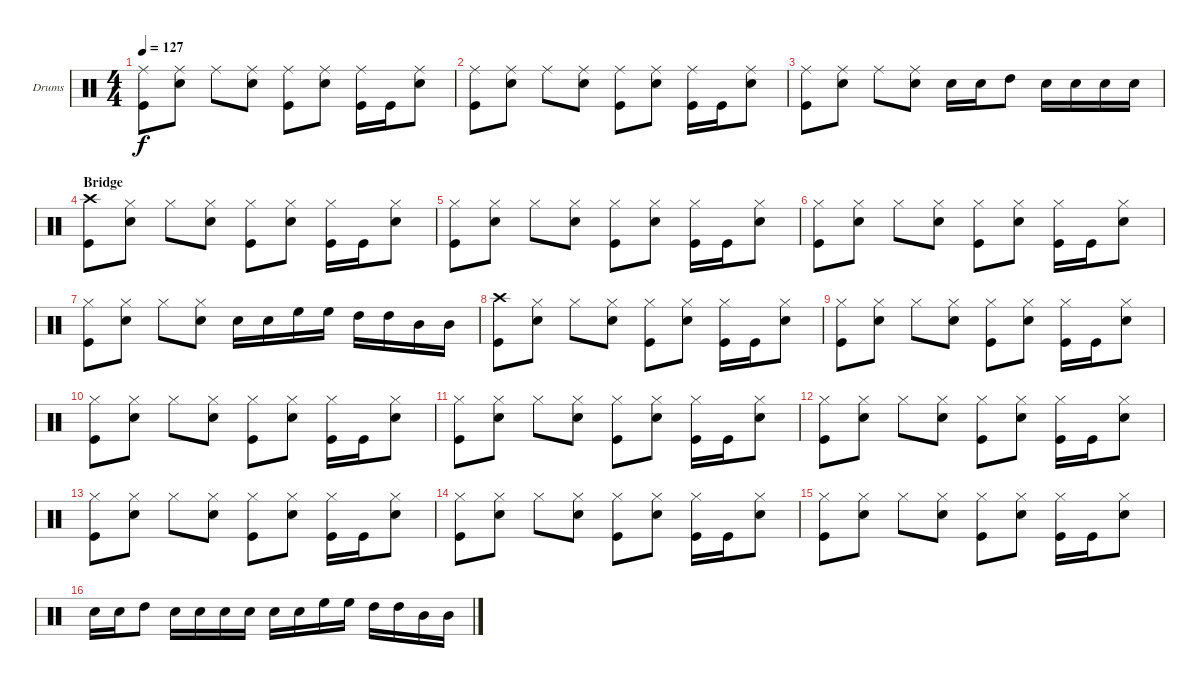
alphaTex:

\bracketExtendMode nobrackets
\firstSystemTrackNameOrientation horizontal
\otherSystemsTrackNameOrientation horizontal
\track ("Matt Cameron" "Drums") {instrument percussion}
\staff {score}
\articulation defaults
\ts (4 4)
\tempo 127
\clef neutral
\scale
0.333333
\ks c
("Kick (hit)" "Ride (middle)").8{dy f} ("Snare (hit) 2" "Ride (middle)").8 "Ride (middle)".8 ("Snare (hit) 2" "Ride (middle)").8 ("Kick (hit)" "Ride (middle)").8 ("Snare (hit) 2" "Ride (middle)").8 ("Kick (hit)" "Ride (middle)").16 "Kick (hit)".16 ("Snare (hit) 2" "Ride (middle)").8 |
\scale
0.333333 ("Kick (hit)" "Ride (middle)").8 ("Snare (hit) 2" "Ride (middle)").8 "Ride (middle)".8 ("Snare (hit) 2" "Ride (middle)").8 ("Kick (hit)" "Ride (middle)").8 ("Snare (hit) 2" "Ride (middle)").8 ("Kick (hit)" "Ride (middle)").16 "Kick (hit)".16 ("Snare (hit) 2" "Ride (middle)").8 |
\scale
0.333333 ("Kick (hit)" "Ride (middle)").8 ("Snare (hit) 2" "Ride (middle)").8 "Ride (middle)".8 ("Snare (hit) 2" "Ride (middle)").8 "Snare (hit) 2".16 "Snare (hit) 2".16 "High Tom (hit)".8 "Snare (hit) 2".16 "Snare (hit) 2".16 "Snare (hit) 2".16 "Snare (hit) 2".16 |
\section ("" "Bridge")
\scale
0.333333 ("Kick (hit)" "Crash high (hit)").8 ("Snare (hit) 2" "Hi-Hat (closed)").8 "Hi-Hat (closed)".8 ("Snare (hit) 2" "Hi-Hat (closed)").8 ("Kick (hit)" "Hi-Hat (closed)").8 ("Snare (hit) 2" "Hi-Hat (closed)").8 ("Kick (hit)" "Hi-Hat (closed)").16 "Kick (hit)".16 ("Snare (hit) 2" "Hi-Hat (closed)").8 |
\scale
0.333333 ("Kick (hit)" "Hi-Hat (closed)").8 ("Snare (hit) 2" "Hi-Hat (closed)").8 "Hi-Hat (closed)".8 ("Snare (hit) 2" "Hi-Hat (closed)").8 ("Kick (hit)" "Hi-Hat (closed)").8 ("Snare (hit) 2" "Hi-Hat (closed)").8 ("Kick (hit)" "Hi-Hat (closed)").16 "Kick (hit)".16 ("Snare (hit) 2" "Hi-Hat (closed)").8 |
\scale
0.333333 ("Kick (hit)" "Hi-Hat (closed)").8 ("Snare (hit) 2" "Hi-Hat (closed)").8 "Hi-Hat (closed)".8 ("Snare (hit) 2" "Hi-Hat (closed)").8 ("Kick (hit)" "Hi-Hat (closed)").8 ("Snare (hit) 2" "Hi-Hat (closed)").8 ("Kick (hit)" "Hi-Hat (closed)").16 "Kick (hit)".16 ("Snare (hit) 2" "Hi-Hat (closed)").8 |
\scale
0.333333 ("Kick (hit)" "Hi-Hat (closed)").8 ("Snare (hit) 2" "Hi-Hat (closed)").8 "Hi-Hat (closed)".8 ("Snare (hit) 2" "Hi-Hat (closed)").8 "Snare (hit) 2".16 "Snare (hit) 2".16 "High Floor Tom (hit)".16 "High Floor Tom (hit)".16 "High Tom (hit)".16 "High Tom (hit)".16 "Mid Tom (hit)".16 "Mid Tom (hit)".16 |
\scale
0.333333 ("Kick (hit)" "Crash high (hit)").8 ("Snare (hit) 2" "Hi-Hat (closed)").8 "Hi-Hat (closed)".8 ("Snare (hit) 2" "Hi-Hat (closed)").8 ("Kick (hit)" "Hi-Hat (closed)").8 ("Snare (hit) 2" "Hi-Hat (closed)").8 ("Kick (hit)" "Hi-Hat (closed)").16 "Kick (hit)".16 ("Snare (hit) 2" "Hi-Hat (closed)").8 |
\scale
0.333333 ("Kick (hit)" "Hi-Hat (closed)").8 ("Snare (hit) 2" "Hi-Hat (closed)").8 "Hi-Hat (closed)".8 ("Snare (hit) 2" "Hi-Hat (closed)").8 ("Kick (hit)" "Hi-Hat (closed)").8 ("Snare (hit) 2" "Hi-Hat (closed)").8 ("Kick (hit)" "Hi-Hat (closed)").16 "Kick (hit)".16 ("Snare (hit) 2" "Hi-Hat (closed)").8 |
\scale
0.333333 ("Kick (hit)" "Hi-Hat (closed)").8 ("Snare (hit) 2" "Hi-Hat (closed)").8 "Hi-Hat (closed)".8 ("Snare (hit) 2" "Hi-Hat (closed)").8 ("Kick (hit)" "Hi-Hat (closed)").8 ("Snare (hit) 2" "Hi-Hat (closed)").8 ("Kick (hit)" "Hi-Hat (closed)").16 "Kick (hit)".16 ("Snare (hit) 2" "Hi-Hat (closed)").8 |
\scale
0.333333 ("Kick (hit)" "Hi-Hat (closed)").8 ("Snare (hit) 2" "Hi-Hat (closed)").8 "Hi-Hat (closed)".8 ("Snare (hit) 2" "Hi-Hat (closed)").8 ("Kick (hit)" "Hi-Hat (closed)").8 ("Snare (hit) 2" "Hi-Hat (closed)").8 ("Kick (hit)" "Hi-Hat (closed)").16 "Kick (hit)".16 ("Snare (hit) 2" "Hi-Hat (closed)").8 |
\scale
0.333333 ("Kick (hit)" "Hi-Hat (closed)").8 ("Snare (hit) 2" "Hi-Hat (closed)").8 "Hi-Hat (closed)".8 ("Snare (hit) 2" "Hi-Hat (closed)").8 ("Kick (hit)" "Hi-Hat (closed)").8 ("Snare (hit) 2" "Hi-Hat (closed)").8 ("Kick (hit)" "Hi-Hat (closed)").16 "Kick (hit)".16 ("Snare (hit) 2" "Hi-Hat (closed)").8 |
\scale
0.333333 ("Kick (hit)" "Hi-Hat (closed)").8 ("Snare (hit) 2" "Hi-Hat (closed)").8 "Hi-Hat (closed)".8 ("Snare (hit) 2" "Hi-Hat (closed)").8 ("Kick (hit)" "Hi-Hat (closed)").8 ("Snare (hit) 2" "Hi-Hat (closed)").8 ("Kick (hit)" "Hi-Hat (closed)").16 "Kick (hit)".16 ("Snare (hit) 2" "Hi-Hat (closed)").8 |
\scale
0.333333 ("Kick (hit)" "Hi-Hat (closed)").8 ("Snare (hit) 2" "Hi-Hat (closed)").8 "Hi-Hat (closed)".8 ("Snare (hit) 2" "Hi-Hat (closed)").8 ("Kick (hit)" "Hi-Hat (closed)").8 ("Snare (hit) 2" "Hi-Hat (closed)").8 ("Kick (hit)" "Hi-Hat (closed)").16 "Kick (hit)".16 ("Snare (hit) 2" "Hi-Hat (closed)").8 |
\scale
0.333333 ("Kick (hit)" "Hi-Hat (closed)").8 ("Snare (hit) 2" "Hi-Hat (closed)").8 "Hi-Hat (closed)".8 ("Snare (hit) 2" "Hi-Hat (closed)").8 ("Kick (hit)" "Hi-Hat (closed)").8 ("Snare (hit) 2" "Hi-Hat (closed)").8 ("Kick (hit)" "Hi-Hat (closed)").16 "Kick (hit)".16 ("Snare (hit) 2" "Hi-Hat (closed)").8 |
\scale
0.333333 "Snare (hit) 2".16 "Snare (hit) 2".16 "High Tom (hit)".8 "Snare (hit) 2".16 "Snare (hit) 2".16 "Snare (hit) 2".16 "Snare (hit) 2".16 "Snare (hit) 2".16 "Snare (hit) 2".16 "High Floor Tom (hit)".16 "High Floor Tom (hit)".16 "High Tom (hit)".16 "High Tom (hit)".16 "Mid Tom (hit)".16 "Mid Tom (hit)".16
